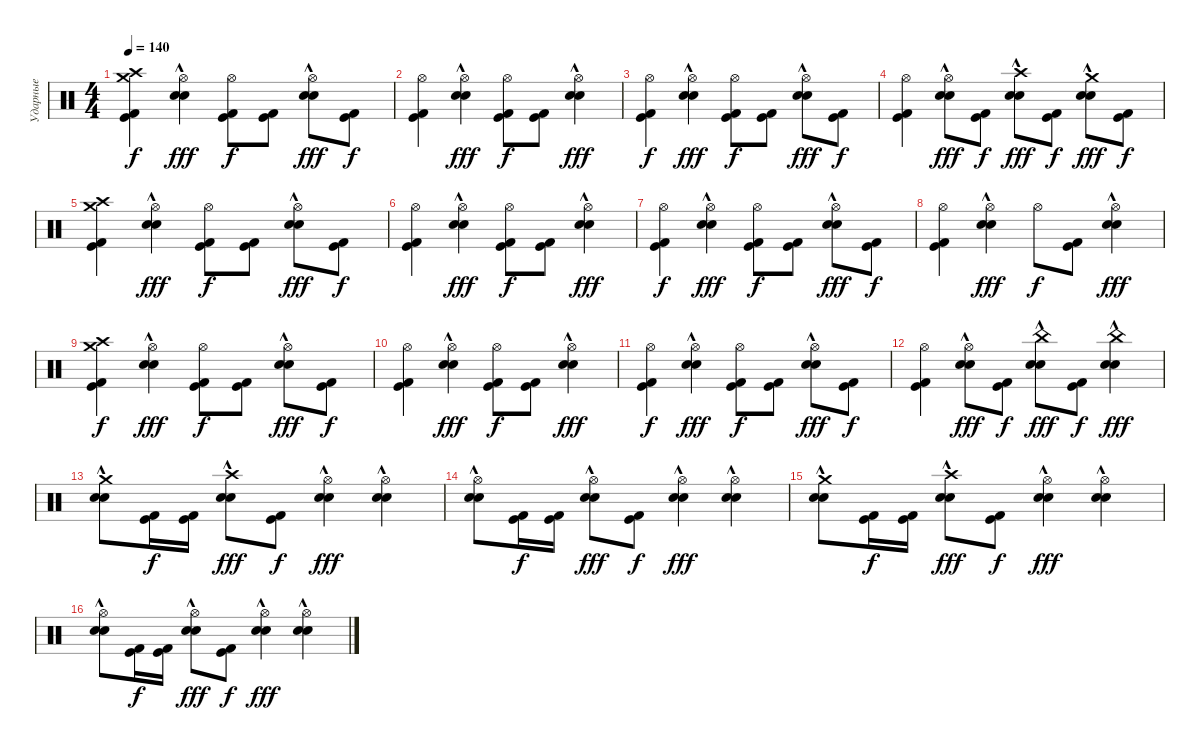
\track ("Ударные" "Ударные") {instrument percussion}
\staff {score}
\articulation defaults
\ts (4 4)
\tempo 140
\clef neutral
\ks c
("Crash high (hit)" "Kick (hit)" "Kick (hit) 2" "Crash medium (hit)").4{dy f} ("Hi-Hat (open)" "Snare (hit) 2"{hac} "Electric Snare (hit)"{hac}).4{dy fff} ("Hi-Hat (open)" "Kick (hit)" "Kick (hit) 2").8{dy f} ("Kick (hit)" "Kick (hit) 2").8 ("Hi-Hat (open)" "Snare (hit) 2"{hac} "Electric Snare (hit)"{hac}).8{dy fff} ("Kick (hit)" "Kick (hit) 2").8{dy f} |
("Hi-Hat (open)" "Kick (hit)" "Kick (hit) 2").4 ("Hi-Hat (open)" "Snare (hit) 2"{hac} "Electric Snare (hit)"{hac}).4{dy fff} ("Hi-Hat (open)" "Kick (hit)" "Kick (hit) 2").8{dy f} ("Kick (hit)" "Kick (hit) 2").8 ("Hi-Hat (open)" "Snare (hit) 2"{hac} "Electric Snare (hit)"{hac}).4{dy fff} |
("Hi-Hat (open)" "Kick (hit)" "Kick (hit) 2").4{dy f} ("Hi-Hat (open)" "Snare (hit) 2"{hac} "Electric Snare (hit)"{hac}).4{dy fff} ("Hi-Hat (open)" "Kick (hit)" "Kick (hit) 2").8{dy f} ("Kick (hit)" "Kick (hit) 2").8 ("Hi-Hat (open)" "Snare (hit) 2"{hac} "Electric Snare (hit)"{hac}).8{dy fff} ("Kick (hit)" "Kick (hit) 2").8{dy f} |
("Hi-Hat (open)" "Kick (hit)" "Kick (hit) 2").4 ("Hi-Hat (open)" "Snare (hit) 2"{hac} "Electric Snare (hit)"{hac}).8{dy fff} ("Kick (hit)" "Kick (hit) 2").8{dy f} ("Crash high (hit)" "Snare (hit) 2"{hac} "Electric Snare (hit)"{hac}).8{dy fff} ("Kick (hit)" "Kick (hit) 2").8{dy f} ("Crash medium (hit)" "Snare (hit) 2"{hac} "Electric Snare (hit)"{hac}).8{dy fff} ("Kick (hit)" "Kick (hit) 2").8{dy f} |
("Crash high (hit)" "Kick (hit)" "Kick (hit) 2" "Crash medium (hit)").4 ("Hi-Hat (open)" "Snare (hit) 2"{hac} "Electric Snare (hit)"{hac}).4{dy fff} ("Hi-Hat (open)" "Kick (hit)" "Kick (hit) 2").8{dy f} ("Kick (hit)" "Kick (hit) 2").8 ("Hi-Hat (open)" "Snare (hit) 2"{hac} "Electric Snare (hit)"{hac}).8{dy fff} ("Kick (hit)" "Kick (hit) 2").8{dy f} |
("Hi-Hat (open)" "Kick (hit)" "Kick (hit) 2").4 ("Hi-Hat (open)" "Snare (hit) 2"{hac} "Electric Snare (hit)"{hac}).4{dy fff} ("Hi-Hat (open)" "Kick (hit)" "Kick (hit) 2").8{dy f} ("Kick (hit)" "Kick (hit) 2").8 ("Hi-Hat (open)" "Snare (hit) 2"{hac} "Electric Snare (hit)"{hac}).4{dy fff} |
("Hi-Hat (open)" "Kick (hit)" "Kick (hit) 2").4{dy f} ("Hi-Hat (open)" "Snare (hit) 2"{hac} "Electric Snare (hit)"{hac}).4{dy fff} ("Hi-Hat (open)" "Kick (hit)" "Kick (hit) 2").8{dy f} ("Kick (hit)" "Kick (hit) 2").8 ("Hi-Hat (open)" "Snare (hit) 2"{hac} "Electric Snare (hit)"{hac}).8{dy fff} ("Kick (hit)" "Kick (hit) 2").8{dy f} |
("Hi-Hat (open)" "Kick (hit)" "Kick (hit) 2").4 ("Hi-Hat (open)" "Snare (hit) 2"{hac} "Electric Snare (hit)"{hac}).4{dy fff} "Hi-Hat (open)".8{dy f} ("Kick (hit)" "Kick (hit) 2").8 ("Hi-Hat (open)" "Snare (hit) 2"{hac} "Electric Snare (hit)"{hac}).4{dy fff} |
("Crash high (hit)" "Kick (hit)" "Kick (hit) 2" "Crash medium (hit)").4{dy f} ("Hi-Hat (open)" "Snare (hit) 2"{hac} "Electric Snare (hit)"{hac}).4{dy fff} ("Hi-Hat (open)" "Kick (hit)" "Kick (hit) 2").8{dy f} ("Kick (hit)" "Kick (hit) 2").8 ("Hi-Hat (open)" "Snare (hit) 2"{hac} "Electric Snare (hit)"{hac}).8{dy fff} ("Kick (hit)" "Kick (hit) 2").8{dy f} |
("Hi-Hat (open)" "Kick (hit)" "Kick (hit) 2").4 ("Hi-Hat (open)" "Snare (hit) 2"{hac} "Electric Snare (hit)"{hac}).4{dy fff} ("Hi-Hat (open)" "Kick (hit)" "Kick (hit) 2").8{dy f} ("Kick (hit)" "Kick (hit) 2").8 ("Hi-Hat (open)" "Snare (hit) 2"{hac} "Electric Snare (hit)"{hac}).4{dy fff} |
("Hi-Hat (open)" "Kick (hit)" "Kick (hit) 2").4{dy f} ("Hi-Hat (open)" "Snare (hit) 2"{hac} "Electric Snare (hit)"{hac}).4{dy fff} ("Hi-Hat (open)" "Kick (hit)" "Kick (hit) 2").8{dy f} ("Kick (hit)" "Kick (hit) 2").8 ("Hi-Hat (open)" "Snare (hit) 2"{hac} "Electric Snare (hit)"{hac}).8{dy fff} ("Kick (hit)" "Kick (hit) 2").8{dy f} |
("Hi-Hat (open)" "Kick (hit)" "Kick (hit) 2").4 ("Hi-Hat (open)" "Snare (hit) 2"{hac} "Electric Snare (hit)"{hac}).8{dy fff} ("Kick (hit)" "Kick (hit) 2").8{dy f} ("China (hit)" "Snare (hit) 2"{hac} "Electric Snare (hit)"{hac}).8{dy fff} ("Kick (hit)" "Kick (hit) 2").8{dy f} ("China (hit)" "Snare (hit) 2"{hac} "Electric Snare (hit)"{hac}).4{dy fff} |
("Crash medium (hit)" "Snare (hit) 2"{hac} "Electric Snare (hit)"{hac}).8 ("Kick (hit)" "Kick (hit) 2").16{dy f} ("Kick (hit)" "Kick (hit) 2").16 ("Crash high (hit)" "Snare (hit) 2"{hac} "Electric Snare (hit)"{hac}).8{dy fff} ("Kick (hit)" "Kick (hit) 2").8{dy f} ("Hi-Hat (open)" "Snare (hit) 2"{hac} "Electric Snare (hit)"{hac}).4{dy fff} ("Hi-Hat (open)" "Snare (hit) 2"{hac} "Electric Snare (hit)"{hac}).4 |
("Hi-Hat (open)" "Snare (hit) 2"{hac} "Electric Snare (hit)"{hac}).8 ("Kick (hit)" "Kick (hit) 2").16{dy f} ("Kick (hit)" "Kick (hit) 2").16 ("Hi-Hat (open)" "Snare (hit) 2"{hac} "Electric Snare (hit)"{hac}).8{dy fff} ("Kick (hit)" "Kick (hit) 2").8{dy f} ("Hi-Hat (open)" "Snare (hit) 2"{hac} "Electric Snare (hit)"{hac}).4{dy fff} ("Hi-Hat (open)" "Snare (hit) 2"{hac} "Electric Snare (hit)"{hac}).4 |
("Crash medium (hit)" "Snare (hit) 2"{hac} "Electric Snare (hit)"{hac}).8 ("Kick (hit)" "Kick (hit) 2").16{dy f} ("Kick (hit)" "Kick (hit) 2").16 ("Crash high (hit)" "Snare (hit) 2"{hac} "Electric Snare (hit)"{hac}).8{dy fff} ("Kick (hit)" "Kick (hit) 2").8{dy f} ("Hi-Hat (open)" "Snare (hit) 2"{hac} "Electric Snare (hit)"{hac}).4{dy fff} ("Hi-Hat (open)" "Snare (hit) 2"{hac} "Electric Snare (hit)"{hac}).4 |
("Hi-Hat (open)" "Snare (hit) 2"{hac} "Electric Snare (hit)"{hac}).8 ("Kick (hit)" "Kick (hit) 2").16{dy f} ("Kick (hit)" "Kick (hit) 2").16 ("Hi-Hat (open)" "Snare (hit) 2"{hac} "Electric Snare (hit)"{hac}).8{dy fff} ("Kick (hit)" "Kick (hit) 2").8{dy f} ("Hi-Hat (open)" "Snare (hit) 2"{hac} "Electric Snare (hit)"{hac}).4{dy fff} ("Hi-Hat (open)" "Snare (hit) 2"{hac} "Electric Snare (hit)"{hac}).4
